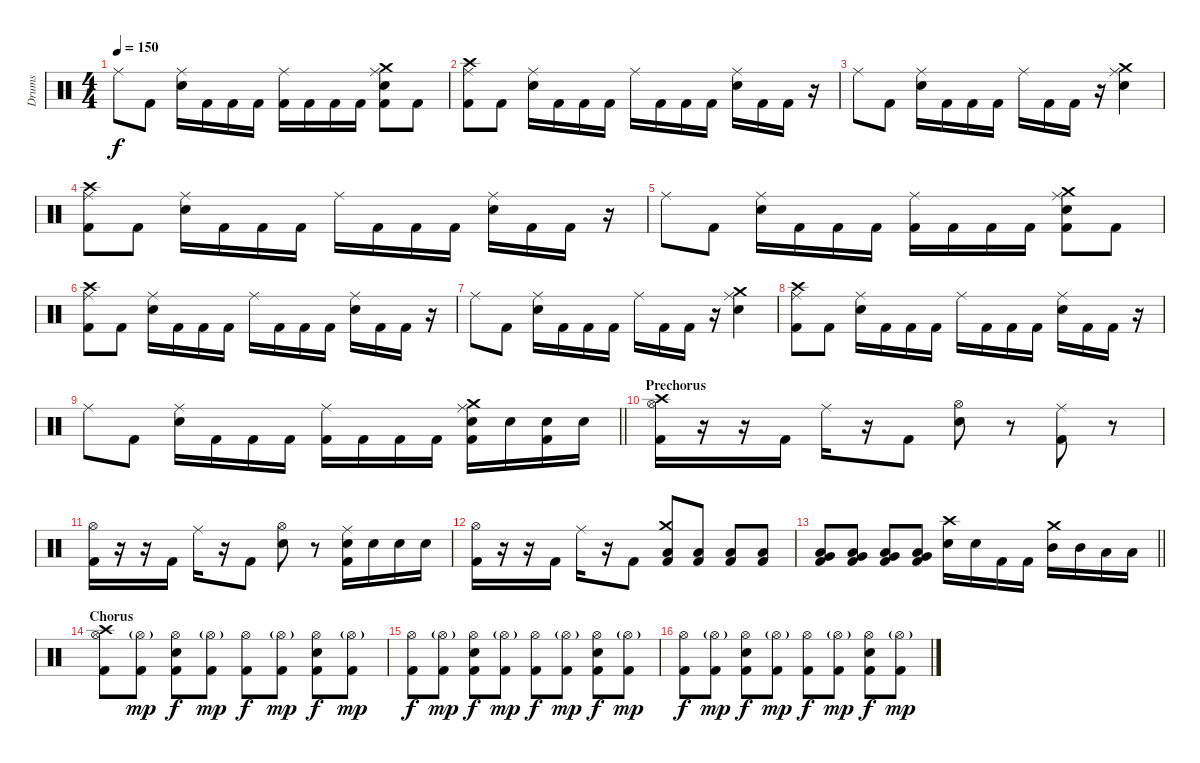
\track ("Drums" "Drums") {instrument percussion}
\staff {score}
\articulation defaults
\ts (4 4)
\tempo 150
\clef neutral
\ks c "Ride (middle)".8{dy f} "Kick (hit) 2".8
("Ride (middle)" "Snare (hit) 2").16 "Kick (hit) 2".16 "Kick (hit) 2".16 "Kick (hit) 2".16 ("Ride (middle)" "Kick (hit) 2").16 "Kick (hit) 2".16 "Kick (hit) 2".16 "Kick (hit) 2".16 ("Crash medium (hit)" "Ride (middle)" "Snare (hit) 2" "Kick (hit) 2").8 "Kick (hit) 2".8 |
("Crash high (hit)" "Ride (middle)" "Kick (hit) 2").8 "Kick (hit) 2".8 ("Ride (middle)" "Snare (hit) 2").16 "Kick (hit) 2".16 "Kick (hit) 2".16 "Kick (hit) 2".16 "Ride (middle)".16 "Kick (hit) 2".16 "Kick (hit) 2".16 "Kick (hit) 2".16 ("Ride (middle)" "Snare (hit) 2").16 "Kick (hit) 2".16 "Kick (hit) 2".16 r.16 |
"Ride (middle)".8 "Kick (hit) 2".8 ("Ride (middle)" "Snare (hit) 2").16 "Kick (hit) 2".16 "Kick (hit) 2".16 "Kick (hit) 2".16 "Ride (middle)".16 "Kick (hit) 2".16 "Kick (hit) 2".16 r.16 ("Crash medium (hit)" "Ride (middle)" "Snare (hit) 2").4 |
("Crash high (hit)" "Ride (middle)" "Kick (hit) 2").8 "Kick (hit) 2".8 ("Ride (middle)" "Snare (hit) 2").16 "Kick (hit) 2".16 "Kick (hit) 2".16 "Kick (hit) 2".16 "Ride (middle)".16 "Kick (hit) 2".16 "Kick (hit) 2".16 "Kick (hit) 2".16 ("Ride (middle)" "Snare (hit) 2").16 "Kick (hit) 2".16 "Kick (hit) 2".16 r.16 |
"Ride (middle)".8 "Kick (hit) 2".8 ("Ride (middle)" "Snare (hit) 2").16 "Kick (hit) 2".16 "Kick (hit) 2".16 "Kick (hit) 2".16 ("Ride (middle)" "Kick (hit) 2").16 "Kick (hit) 2".16 "Kick (hit) 2".16 "Kick (hit) 2".16 ("Crash medium (hit)" "Ride (middle)" "Snare (hit) 2" "Kick (hit) 2").8 "Kick (hit) 2".8 |
("Crash high (hit)" "Ride (middle)" "Kick (hit) 2").8 "Kick (hit) 2".8 ("Ride (middle)" "Snare (hit) 2").16 "Kick (hit) 2".16 "Kick (hit) 2".16 "Kick (hit) 2".16 "Ride (middle)".16 "Kick (hit) 2".16 "Kick (hit) 2".16 "Kick (hit) 2".16 ("Ride (middle)" "Snare (hit) 2").16 "Kick (hit) 2".16 "Kick (hit) 2".16 r.16 |
"Ride (middle)".8 "Kick (hit) 2".8 ("Ride (middle)" "Snare (hit) 2").16 "Kick (hit) 2".16 "Kick (hit) 2".16 "Kick (hit) 2".16 "Ride (middle)".16 "Kick (hit) 2".16 "Kick (hit) 2".16 r.16 ("Crash medium (hit)" "Ride (middle)" "Snare (hit) 2").4 |
("Crash high (hit)" "Ride (middle)" "Kick (hit) 2").8 "Kick (hit) 2".8 ("Ride (middle)" "Snare (hit) 2").16 "Kick (hit) 2".16 "Kick (hit) 2".16 "Kick (hit) 2".16 "Ride (middle)".16 "Kick (hit) 2".16 "Kick (hit) 2".16 "Kick (hit) 2".16 ("Ride (middle)" "Snare (hit) 2").16 "Kick (hit) 2".16 "Kick (hit) 2".16 r.16 |
\barLineRight lightlight "Ride (middle)".8 "Kick (hit) 2".8
("Ride (middle)" "Snare (hit) 2").16 "Kick (hit) 2".16 "Kick (hit) 2".16 "Kick (hit) 2".16 ("Ride (middle)" "Kick (hit) 2").16 "Kick (hit) 2".16 "Kick (hit) 2".16 "Kick (hit) 2".16 ("Crash medium (hit)" "Ride (middle)" "Snare (hit) 2" "Kick (hit) 2").16 "Snare (hit) 2".16 ("Snare (hit) 2" "Kick (hit) 2").16 "Snare (hit) 2".16 |
\section ("" "Prechorus")
("Crash high (hit)" "Hi-Hat (open)" "Kick (hit) 2").16 r.16 r.16 "Kick (hit) 2".16 "Ride (middle)".16 r.16 "Kick (hit) 2".8 ("Hi-Hat (open)" "Snare (hit) 2").8 r.8 ("Ride (middle)" "Kick (hit) 2").8 r.8 |
("Hi-Hat (open)" "Kick (hit) 2").16 r.16 r.16 "Kick (hit) 2".16 "Ride (middle)".16 r.16 "Kick (hit) 2".8 ("Hi-Hat (open)" "Snare (hit) 2").8 r.8 ("Ride (middle)" "Snare (hit) 2" "Kick (hit) 2").16 "Snare (hit) 2".16 "Snare (hit) 2".16 "Snare (hit) 2".16 |
("Hi-Hat (open)" "Kick (hit) 2").16 r.16 r.16 "Kick (hit) 2".16 "Ride (middle)".16 r.16 "Kick (hit) 2".8 ("Crash medium (hit)" "Low Floor Tom (hit)" "Kick (hit) 2").8 ("Low Floor Tom (hit)" "Kick (hit) 2").8 ("Low Floor Tom (hit)" "Kick (hit) 2").8 ("Low Floor Tom (hit)" "Kick (hit) 2").8 |
\barLineRight lightlight
("Very Low Tom (hit)" "Low Floor Tom (hit)" "Kick (hit) 2").8 ("Very Low Tom (hit)" "Low Floor Tom (hit)" "Kick (hit) 2").8 ("Very Low Tom (hit)" "Low Floor Tom (hit)" "Kick (hit) 2").8 ("Very Low Tom (hit)" "Low Floor Tom (hit)" "Kick (hit) 2").8 ("Crash high (hit)" "Snare (hit) 2").16 "Snare (hit) 2".16 "Kick (hit) 2".16 "Kick (hit) 2".16 ("Crash medium (hit)" "Mid Tom (hit)").16 "Mid Tom (hit)".16 "Low Tom (hit)".16 "Low Tom (hit)".16 |
\section ("" "Chorus")
("Crash high (hit)" "Hi-Hat (open)" "Kick (hit) 2").8 ("Hi-Hat (open)"{g} "Kick (hit) 2").8{dy mp} ("Hi-Hat (open)" "Snare (hit) 2" "Kick (hit) 2").8{dy f} ("Hi-Hat (open)"{g} "Kick (hit) 2").8{dy mp} ("Hi-Hat (open)" "Kick (hit) 2").8{dy f} ("Hi-Hat (open)"{g} "Kick (hit) 2").8{dy mp} ("Hi-Hat (open)" "Snare (hit) 2" "Kick (hit) 2").8{dy f} ("Hi-Hat (open)"{g} "Kick (hit) 2").8{dy mp} |
("Hi-Hat (open)" "Kick (hit) 2").8{dy f} ("Hi-Hat (open)"{g} "Kick (hit) 2").8{dy mp} ("Hi-Hat (open)" "Snare (hit) 2" "Kick (hit) 2").8{dy f} ("Hi-Hat (open)"{g} "Kick (hit) 2").8{dy mp} ("Hi-Hat (open)" "Kick (hit) 2").8{dy f} ("Hi-Hat (open)"{g} "Kick (hit) 2").8{dy mp} ("Hi-Hat (open)" "Snare (hit) 2" "Kick (hit) 2").8{dy f} ("Hi-Hat (open)"{g} "Kick (hit) 2").8{dy mp} |
("Hi-Hat (open)" "Kick (hit) 2").8{dy f} ("Hi-Hat (open)"{g} "Kick (hit) 2").8{dy mp} ("Hi-Hat (open)" "Snare (hit) 2" "Kick (hit) 2").8{dy f} ("Hi-Hat (open)"{g} "Kick (hit) 2").8{dy mp} ("Hi-Hat (open)" "Kick (hit) 2").8{dy f} ("Hi-Hat (open)"{g} "Kick (hit) 2").8{dy mp} ("Hi-Hat (open)" "Snare (hit) 2" "Kick (hit) 2").8{dy f} ("Hi-Hat (open)"{g} "Kick (hit) 2").8{dy mp}
